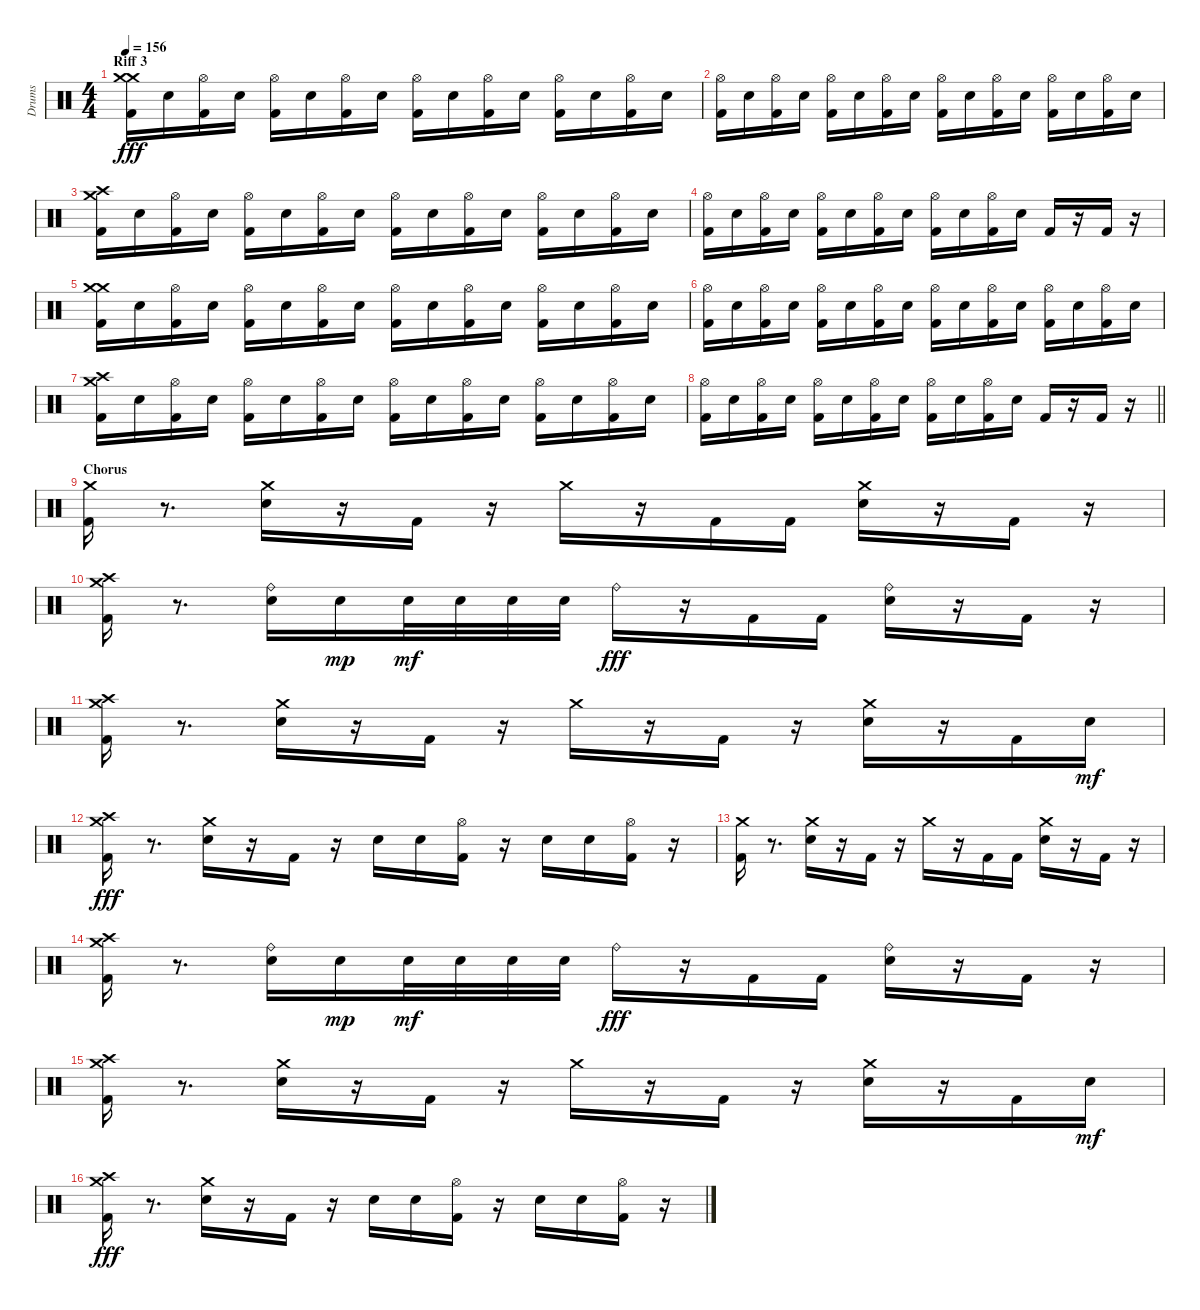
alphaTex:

\track ("Drums" "Drums") {instrument percussion}
\staff {score}
\articulation defaults
\ts (4 4)
\section ("" "Riff 3")
\tempo 156
\clef neutral
\ks c
("Kick (hit) 2" "Crash medium (hit)" "Crash medium (hit)").16{dy fff} "Snare (hit) 2".16 ("Kick (hit) 2" "Hi-Hat (open)").16 "Snare (hit) 2".16 ("Kick (hit) 2" "Hi-Hat (open)").16 "Snare (hit) 2".16 ("Kick (hit) 2" "Hi-Hat (open)").16 "Snare (hit) 2".16 ("Kick (hit) 2" "Hi-Hat (open)").16 "Snare (hit) 2".16 ("Kick (hit) 2" "Hi-Hat (open)").16 "Snare (hit) 2".16 ("Kick (hit) 2" "Hi-Hat (open)").16 "Snare (hit) 2".16 ("Kick (hit) 2" "Hi-Hat (open)").16 "Snare (hit) 2".16 |
("Kick (hit) 2" "Hi-Hat (open)").16 "Snare (hit) 2".16 ("Kick (hit) 2" "Hi-Hat (open)").16 "Snare (hit) 2".16 ("Kick (hit) 2" "Hi-Hat (open)").16 "Snare (hit) 2".16 ("Kick (hit) 2" "Hi-Hat (open)").16 "Snare (hit) 2".16 ("Kick (hit) 2" "Hi-Hat (open)").16 "Snare (hit) 2".16 ("Kick (hit) 2" "Hi-Hat (open)").16 "Snare (hit) 2".16 ("Kick (hit) 2" "Hi-Hat (open)").16 "Snare (hit) 2".16 ("Kick (hit) 2" "Hi-Hat (open)").16 "Snare (hit) 2".16 |
("Kick (hit) 2" "Crash high (hit)" "Crash medium (hit)").16 "Snare (hit) 2".16 ("Kick (hit) 2" "Hi-Hat (open)").16 "Snare (hit) 2".16 ("Kick (hit) 2" "Hi-Hat (open)").16 "Snare (hit) 2".16 ("Kick (hit) 2" "Hi-Hat (open)").16 "Snare (hit) 2".16 ("Kick (hit) 2" "Hi-Hat (open)").16 "Snare (hit) 2".16 ("Kick (hit) 2" "Hi-Hat (open)").16 "Snare (hit) 2".16 ("Kick (hit) 2" "Hi-Hat (open)").16 "Snare (hit) 2".16 ("Kick (hit) 2" "Hi-Hat (open)").16 "Snare (hit) 2".16 |
("Kick (hit) 2" "Hi-Hat (open)").16 "Snare (hit) 2".16 ("Kick (hit) 2" "Hi-Hat (open)").16 "Snare (hit) 2".16 ("Kick (hit) 2" "Hi-Hat (open)").16 "Snare (hit) 2".16 ("Kick (hit) 2" "Hi-Hat (open)").16 "Snare (hit) 2".16 ("Kick (hit) 2" "Hi-Hat (open)").16 "Snare (hit) 2".16 ("Kick (hit) 2" "Hi-Hat (open)").16 "Snare (hit) 2".16 "Kick (hit) 2".16 r.16 "Kick (hit) 2".16 r.16 |
("Kick (hit) 2" "Crash medium (hit)" "Crash medium (hit)").16 "Snare (hit) 2".16 ("Kick (hit) 2" "Hi-Hat (open)").16 "Snare (hit) 2".16 ("Kick (hit) 2" "Hi-Hat (open)").16 "Snare (hit) 2".16 ("Kick (hit) 2" "Hi-Hat (open)").16 "Snare (hit) 2".16 ("Kick (hit) 2" "Hi-Hat (open)").16 "Snare (hit) 2".16 ("Kick (hit) 2" "Hi-Hat (open)").16 "Snare (hit) 2".16 ("Kick (hit) 2" "Hi-Hat (open)").16 "Snare (hit) 2".16 ("Kick (hit) 2" "Hi-Hat (open)").16 "Snare (hit) 2".16 |
("Kick (hit) 2" "Hi-Hat (open)").16 "Snare (hit) 2".16 ("Kick (hit) 2" "Hi-Hat (open)").16 "Snare (hit) 2".16 ("Kick (hit) 2" "Hi-Hat (open)").16 "Snare (hit) 2".16 ("Kick (hit) 2" "Hi-Hat (open)").16 "Snare (hit) 2".16 ("Kick (hit) 2" "Hi-Hat (open)").16 "Snare (hit) 2".16 ("Kick (hit) 2" "Hi-Hat (open)").16 "Snare (hit) 2".16 ("Kick (hit) 2" "Hi-Hat (open)").16 "Snare (hit) 2".16 ("Kick (hit) 2" "Hi-Hat (open)").16 "Snare (hit) 2".16 |
("Kick (hit) 2" "Crash high (hit)" "Crash medium (hit)").16 "Snare (hit) 2".16 ("Kick (hit) 2" "Hi-Hat (open)").16 "Snare (hit) 2".16 ("Kick (hit) 2" "Hi-Hat (open)").16 "Snare (hit) 2".16 ("Kick (hit) 2" "Hi-Hat (open)").16 "Snare (hit) 2".16 ("Kick (hit) 2" "Hi-Hat (open)").16 "Snare (hit) 2".16 ("Kick (hit) 2" "Hi-Hat (open)").16 "Snare (hit) 2".16 ("Kick (hit) 2" "Hi-Hat (open)").16 "Snare (hit) 2".16 ("Kick (hit) 2" "Hi-Hat (open)").16 "Snare (hit) 2".16 |
\barLineRight lightlight
("Kick (hit) 2" "Hi-Hat (open)").16 "Snare (hit) 2".16 ("Kick (hit) 2" "Hi-Hat (open)").16 "Snare (hit) 2".16 ("Kick (hit) 2" "Hi-Hat (open)").16 "Snare (hit) 2".16 ("Kick (hit) 2" "Hi-Hat (open)").16 "Snare (hit) 2".16 ("Kick (hit) 2" "Hi-Hat (open)").16 "Snare (hit) 2".16 ("Kick (hit) 2" "Hi-Hat (open)").16 "Snare (hit) 2".16 "Kick (hit) 2".16 r.16 "Kick (hit) 2".16 r.16 |
\section ("" "Chorus")
("Kick (hit) 2" "Crash medium (hit)").16 r.8{d} ("Snare (hit) 2" "Crash medium (hit)").16 r.16 "Kick (hit) 2".16 r.16 "Crash medium (hit)".16 r.16 "Kick (hit) 2".16 "Kick (hit) 2".16 ("Snare (hit) 2" "Crash medium (hit)").16 r.16 "Kick (hit) 2".16 r.16 |
("Kick (hit) 2" "Crash high (hit)" "Crash medium (hit)").16 r.8{d} ("Snare (hit) 2" "Ride (bell)").16 "Snare (hit) 2".16{dy mp} "Snare (hit) 2".32{dy mf} "Snare (hit) 2".32 "Snare (hit) 2".32 "Snare (hit) 2".32 "Ride (bell)".16{dy fff} r.16 "Kick (hit) 2".16 "Kick (hit) 2".16 ("Snare (hit) 2" "Ride (bell)").16 r.16 "Kick (hit) 2".16 r.16 |
("Kick (hit) 2" "Crash high (hit)" "Crash medium (hit)").16 r.8{d} ("Snare (hit) 2" "Crash medium (hit)").16 r.16 "Kick (hit) 2".16 r.16 "Crash medium (hit)".16 r.16 "Kick (hit) 2".16 r.16 ("Snare (hit) 2" "Crash medium (hit)").16 r.16 "Kick (hit) 2".16 "Snare (hit) 2".16{dy mf} |
("Kick (hit) 2" "Crash high (hit)" "Crash medium (hit)").16{dy fff} r.8{d} ("Snare (hit) 2" "Crash medium (hit)").16 r.16 "Kick (hit) 2".16 r.16 "Snare (hit) 2".16 "Snare (hit) 2".16 ("Kick (hit) 2" "Hi-Hat (open)").16 r.16 "Snare (hit) 2".16 "Snare (hit) 2".16 ("Kick (hit) 2" "Hi-Hat (open)").16 r.16 |
("Kick (hit) 2" "Crash medium (hit)").16 r.8{d} ("Snare (hit) 2" "Crash medium (hit)").16 r.16 "Kick (hit) 2".16 r.16 "Crash medium (hit)".16 r.16 "Kick (hit) 2".16 "Kick (hit) 2".16 ("Snare (hit) 2" "Crash medium (hit)").16 r.16 "Kick (hit) 2".16 r.16 |
("Kick (hit) 2" "Crash high (hit)" "Crash medium (hit)").16 r.8{d} ("Snare (hit) 2" "Ride (bell)").16 "Snare (hit) 2".16{dy mp} "Snare (hit) 2".32{dy mf} "Snare (hit) 2".32 "Snare (hit) 2".32 "Snare (hit) 2".32 "Ride (bell)".16{dy fff} r.16 "Kick (hit) 2".16 "Kick (hit) 2".16 ("Snare (hit) 2" "Ride (bell)").16 r.16 "Kick (hit) 2".16 r.16 |
("Kick (hit) 2" "Crash high (hit)" "Crash medium (hit)").16 r.8{d} ("Snare (hit) 2" "Crash medium (hit)").16 r.16 "Kick (hit) 2".16 r.16 "Crash medium (hit)".16 r.16 "Kick (hit) 2".16 r.16 ("Snare (hit) 2" "Crash medium (hit)").16 r.16 "Kick (hit) 2".16 "Snare (hit) 2".16{dy mf} |
("Kick (hit) 2" "Crash high (hit)" "Crash medium (hit)").16{dy fff} r.8{d} ("Snare (hit) 2" "Crash medium (hit)").16 r.16 "Kick (hit) 2".16 r.16 "Snare (hit) 2".16 "Snare (hit) 2".16 ("Kick (hit) 2" "Hi-Hat (open)").16 r.16 "Snare (hit) 2".16 "Snare (hit) 2".16 ("Kick (hit) 2" "Hi-Hat (open)").16 r.16
